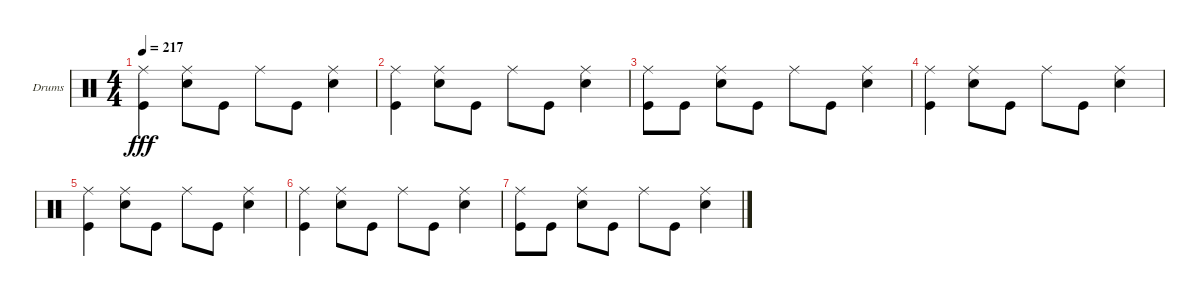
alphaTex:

\bracketExtendMode groupsimilarinstruments
\firstSystemTrackNameOrientation horizontal
\otherSystemsTrackNameOrientation horizontal
\track ("Drumkit" "Drums") {instrument percussion}
\staff {score}
\articulation defaults
\ts (4 4)
\tempo 217
\clef neutral
\ks c
("Kick (hit)" "Ride (middle)").4{dy fff} ("Snare (hit) 2" "Ride (middle)").8 "Kick (hit)".8 "Ride (middle)".8 "Kick (hit)".8 ("Snare (hit) 2" "Ride (middle)").4 |
("Kick (hit)" "Ride (middle)").4 ("Snare (hit) 2" "Ride (middle)").8 "Kick (hit)".8 "Ride (middle)".8 "Kick (hit)".8 ("Snare (hit) 2" "Ride (middle)").4 |
("Kick (hit)" "Ride (middle)").8 "Kick (hit)".8 ("Snare (hit) 2" "Ride (middle)").8 "Kick (hit)".8 "Ride (middle)".8 "Kick (hit)".8 ("Snare (hit) 2" "Ride (middle)").4 |
("Kick (hit)" "Ride (middle)").4 ("Snare (hit) 2" "Ride (middle)").8 "Kick (hit)".8 "Ride (middle)".8 "Kick (hit)".8 ("Snare (hit) 2" "Ride (middle)").4 |
("Kick (hit)" "Ride (middle)").4 ("Snare (hit) 2" "Ride (middle)").8 "Kick (hit)".8 "Ride (middle)".8 "Kick (hit)".8 ("Snare (hit) 2" "Ride (middle)").4 |
("Kick (hit)" "Ride (middle)").4 ("Snare (hit) 2" "Ride (middle)").8 "Kick (hit)".8 "Ride (middle)".8 "Kick (hit)".8 ("Snare (hit) 2" "Ride (middle)").4 |
("Kick (hit)" "Ride (middle)").8 "Kick (hit)".8 ("Snare (hit) 2" "Ride (middle)").8 "Kick (hit)".8 "Ride (middle)".8 "Kick (hit)".8 ("Snare (hit) 2" "Ride (middle)").4
